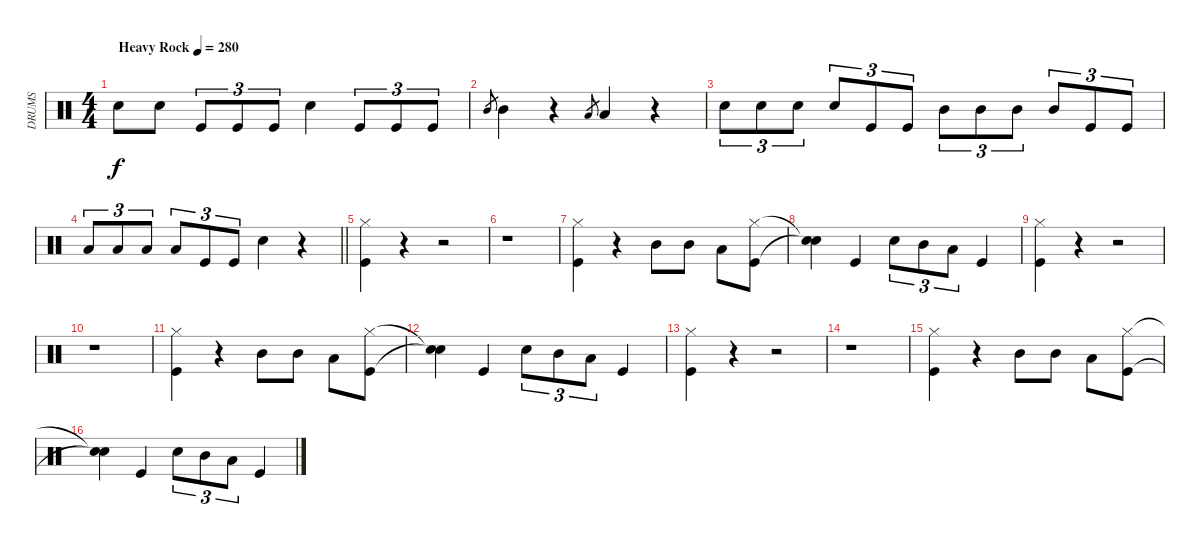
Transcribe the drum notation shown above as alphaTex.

\track ("DRUMS" "DRUMS") {instrument percussion}
\staff {score}
\articulation defaults
\ts (4 4)
\tempo (280 "Heavy Rock")
\clef neutral
\ks c "Snare (hit) 2".8{dy f} "Snare (hit) 2".8 "Kick (hit)".8{tu (3 2)} "Kick (hit)".8{tu (3 2)} "Kick (hit)".8{tu (3 2)} "Snare (hit) 2".4 "Kick (hit)".8{tu (3 2)} "Kick (hit)".8{tu (3 2)} "Kick (hit)".8{tu (3 2)}
|
"Mid Tom (hit)".8{gr} "Mid Tom (hit)".4 r.4 "Low Tom (hit)".8{gr} "Low Tom (hit)".4 r.4 |
"Snare (hit) 2".8{tu (3 2)} "Snare (hit) 2".8{tu (3 2)} "Snare (hit) 2".8{tu (3 2)} "Snare (hit) 2".8{tu (3 2)} "Kick (hit)".8{tu (3 2)} "Kick (hit)".8{tu (3 2)} "Mid Tom (hit)".8{tu (3 2)} "Mid Tom (hit)".8{tu (3 2)} "Mid Tom (hit)".8{tu (3 2)} "Mid Tom (hit)".8{tu (3 2)} "Kick (hit)".8{tu (3 2)} "Kick (hit)".8{tu (3 2)} |
\barLineRight lightlight "Low Tom (hit)".8{tu (3 2)} "Low Tom (hit)".8{tu (3 2)} "Low Tom (hit)".8{tu (3 2)} "Low Tom (hit)".8{tu (3 2)} "Kick (hit)".8{tu (3 2)} "Kick (hit)".8{tu (3 2)} "Snare (hit) 2".4
r.4 |
("Hi-Hat (closed)" "Kick (hit)").4 r.4 r.2 |
r.1 |
("Hi-Hat (closed)" "Kick (hit)").4 r.4 "Mid Tom (hit)".8 "Mid Tom (hit)".8 "Low Tom (hit)".8 ("Hi-Hat (closed)" "Kick (hit)").8 |
("Snare (hit)"{t} "Snare (hit)"{t}).4 "Kick (hit)".4 "Snare (hit) 2".8{tu (3 2)} "Mid Tom (hit)".8{tu (3 2)} "Low Tom (hit)".8{tu (3 2)} "Kick (hit)".4 |
("Hi-Hat (closed)" "Kick (hit)").4 r.4 r.2 |
r.1 |
("Hi-Hat (closed)" "Kick (hit)").4 r.4 "Mid Tom (hit)".8 "Mid Tom (hit)".8 "Low Tom (hit)".8 ("Hi-Hat (closed)" "Kick (hit)").8 |
("Snare (hit)"{t} "Snare (hit)"{t}).4 "Kick (hit)".4 "Snare (hit) 2".8{tu (3 2)} "Mid Tom (hit)".8{tu (3 2)} "Low Tom (hit)".8{tu (3 2)} "Kick (hit)".4 |
("Hi-Hat (closed)" "Kick (hit)").4 r.4 r.2 |
r.1 |
("Hi-Hat (closed)" "Kick (hit)").4 r.4 "Mid Tom (hit)".8 "Mid Tom (hit)".8 "Low Tom (hit)".8 ("Hi-Hat (closed)" "Kick (hit)").8 |
("Snare (hit)"{t} "Snare (hit)"{t}).4 "Kick (hit)".4 "Snare (hit) 2".8{tu (3 2)} "Mid Tom (hit)".8{tu (3 2)} "Low Tom (hit)".8{tu (3 2)} "Kick (hit)".4
